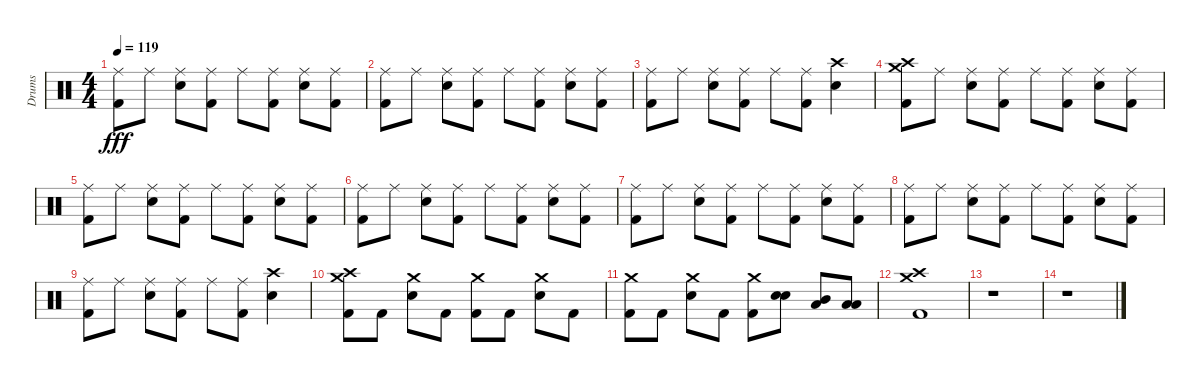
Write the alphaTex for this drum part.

\track ("Drums" "Drums") {instrument percussion}
\staff {score}
\articulation defaults
\ts (4 4)
\tempo 119
\clef neutral
\ks c
("Ride (middle)" "Kick (hit) 2").8{dy fff} "Ride (middle)".8 ("Ride (middle)" "Snare (hit) 2").8 ("Ride (middle)" "Kick (hit) 2").8 "Ride (middle)".8 ("Ride (middle)" "Kick (hit) 2").8 ("Ride (middle)" "Snare (hit) 2").8 ("Ride (middle)" "Kick (hit) 2").8 |
("Ride (middle)" "Kick (hit) 2").8 "Ride (middle)".8 ("Ride (middle)" "Snare (hit) 2").8 ("Ride (middle)" "Kick (hit) 2").8 "Ride (middle)".8 ("Ride (middle)" "Kick (hit) 2").8 ("Ride (middle)" "Snare (hit) 2").8 ("Ride (middle)" "Kick (hit) 2").8 |
("Ride (middle)" "Kick (hit) 2").8 "Ride (middle)".8 ("Ride (middle)" "Snare (hit) 2").8 ("Ride (middle)" "Kick (hit) 2").8 "Ride (middle)".8 ("Ride (middle)" "Kick (hit) 2").8 ("Crash high (hit)" "Snare (hit) 2").4 |
("Crash high (hit)" "Crash medium (hit)" "Kick (hit) 2").8 "Ride (middle)".8 ("Ride (middle)" "Snare (hit) 2").8 ("Ride (middle)" "Kick (hit) 2").8 "Ride (middle)".8 ("Ride (middle)" "Kick (hit) 2").8 ("Ride (middle)" "Snare (hit) 2").8 ("Ride (middle)" "Kick (hit) 2").8 |
("Ride (middle)" "Kick (hit) 2").8 "Ride (middle)".8 ("Ride (middle)" "Snare (hit) 2").8 ("Ride (middle)" "Kick (hit) 2").8 "Ride (middle)".8 ("Ride (middle)" "Kick (hit) 2").8 ("Ride (middle)" "Snare (hit) 2").8 ("Ride (middle)" "Kick (hit) 2").8 |
("Ride (middle)" "Kick (hit) 2").8 "Ride (middle)".8 ("Ride (middle)" "Snare (hit) 2").8 ("Ride (middle)" "Kick (hit) 2").8 "Ride (middle)".8 ("Ride (middle)" "Kick (hit) 2").8 ("Ride (middle)" "Snare (hit) 2").8 ("Ride (middle)" "Kick (hit) 2").8 |
("Ride (middle)" "Kick (hit) 2").8 "Ride (middle)".8 ("Ride (middle)" "Snare (hit) 2").8 ("Ride (middle)" "Kick (hit) 2").8 "Ride (middle)".8 ("Ride (middle)" "Kick (hit) 2").8 ("Ride (middle)" "Snare (hit) 2").8 ("Ride (middle)" "Kick (hit) 2").8 |
("Ride (middle)" "Kick (hit) 2").8 "Ride (middle)".8 ("Ride (middle)" "Snare (hit) 2").8 ("Ride (middle)" "Kick (hit) 2").8 "Ride (middle)".8 ("Ride (middle)" "Kick (hit) 2").8 ("Ride (middle)" "Snare (hit) 2").8 ("Ride (middle)" "Kick (hit) 2").8 |
("Ride (middle)" "Kick (hit) 2").8 "Ride (middle)".8 ("Ride (middle)" "Snare (hit) 2").8 ("Ride (middle)" "Kick (hit) 2").8 "Ride (middle)".8 ("Ride (middle)" "Kick (hit) 2").8 ("Crash high (hit)" "Snare (hit) 2").4 |
("Crash high (hit)" "Crash medium (hit)" "Kick (hit) 2").8 "Kick (hit) 2".8 ("Crash medium (hit)" "Snare (hit) 2").8 "Kick (hit) 2".8 ("Crash medium (hit)" "Kick (hit) 2").8 "Kick (hit) 2".8 ("Crash medium (hit)" "Snare (hit) 2").8 "Kick (hit) 2".8 |
("Crash medium (hit)" "Kick (hit) 2").8 "Kick (hit) 2".8 ("Crash medium (hit)" "Snare (hit) 2").8 "Kick (hit) 2".8 ("Crash medium (hit)" "Kick (hit) 2").8 ("Snare (hit) 2" "Snare (hit) 2").8 ("Mid Tom (hit)" "Low Tom (hit)").8 ("Low Tom (hit)" "Low Floor Tom (hit)").8 |
("Crash high (hit)" "Crash medium (hit)" "Kick (hit) 2").1 |
r.1 |
r.1
